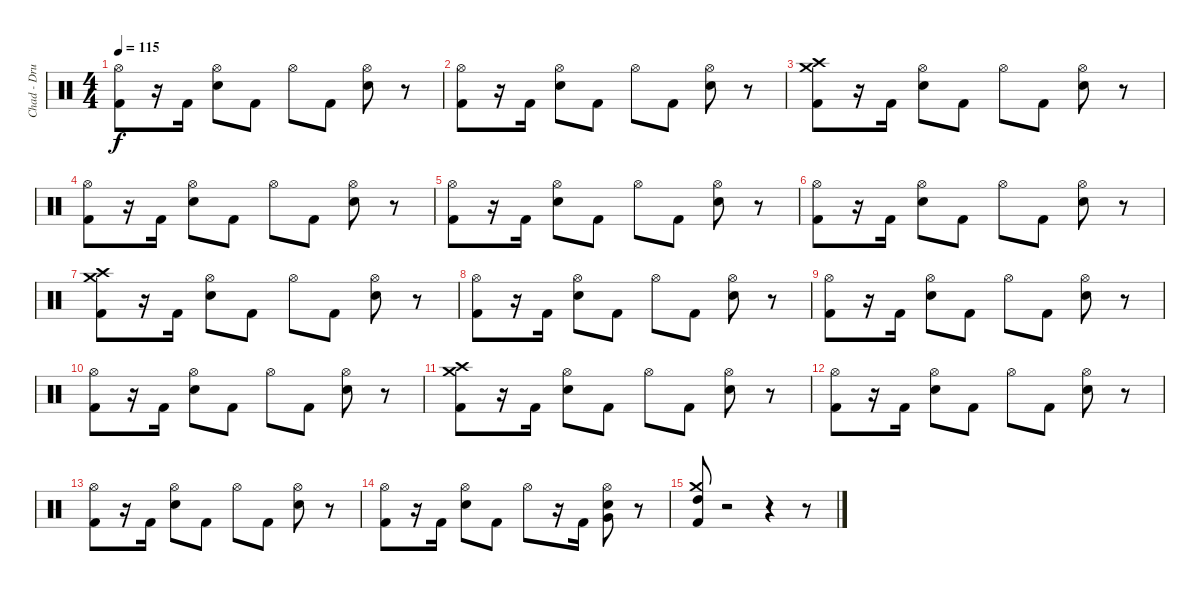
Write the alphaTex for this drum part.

\track ("Chad - Drums" "Chad - Dru") {instrument percussion}
\staff {score}
\articulation defaults
\ts (4 4)
\tempo 115
\clef neutral
\ks c
("Hi-Hat (open)" "Kick (hit) 2").8{dy f} r.16 "Kick (hit) 2".16 ("Hi-Hat (open)" "Electric Snare (hit)").8 "Kick (hit) 2".8 "Hi-Hat (open)".8 "Kick (hit) 2".8 ("Hi-Hat (open)" "Electric Snare (hit)").8 r.8 |
("Hi-Hat (open)" "Kick (hit) 2").8 r.16 "Kick (hit) 2".16 ("Hi-Hat (open)" "Electric Snare (hit)").8 "Kick (hit) 2".8 "Hi-Hat (open)".8 "Kick (hit) 2".8 ("Hi-Hat (open)" "Electric Snare (hit)").8 r.8 |
("Kick (hit) 2" "Crash medium (hit)" "Crash high (hit)").8 r.16 "Kick (hit) 2".16 ("Electric Snare (hit)" "Hi-Hat (open)").8 "Kick (hit) 2".8 "Hi-Hat (open)".8 "Kick (hit) 2".8 ("Electric Snare (hit)" "Hi-Hat (open)").8 r.8 |
("Kick (hit) 2" "Hi-Hat (open)").8 r.16 "Kick (hit) 2".16 ("Electric Snare (hit)" "Hi-Hat (open)").8 "Kick (hit) 2".8 "Hi-Hat (open)".8 "Kick (hit) 2".8 ("Electric Snare (hit)" "Hi-Hat (open)").8 r.8 |
("Hi-Hat (open)" "Kick (hit) 2").8 r.16 "Kick (hit) 2".16 ("Hi-Hat (open)" "Electric Snare (hit)").8 "Kick (hit) 2".8 "Hi-Hat (open)".8 "Kick (hit) 2".8 ("Hi-Hat (open)" "Electric Snare (hit)").8 r.8 |
("Hi-Hat (open)" "Kick (hit) 2").8 r.16 "Kick (hit) 2".16 ("Hi-Hat (open)" "Electric Snare (hit)").8 "Kick (hit) 2".8 "Hi-Hat (open)".8 "Kick (hit) 2".8 ("Hi-Hat (open)" "Electric Snare (hit)").8 r.8 |
("Kick (hit) 2" "Crash medium (hit)" "Crash high (hit)").8 r.16 "Kick (hit) 2".16 ("Electric Snare (hit)" "Hi-Hat (open)").8 "Kick (hit) 2".8 "Hi-Hat (open)".8 "Kick (hit) 2".8 ("Electric Snare (hit)" "Hi-Hat (open)").8 r.8 |
("Kick (hit) 2" "Hi-Hat (open)").8 r.16 "Kick (hit) 2".16 ("Electric Snare (hit)" "Hi-Hat (open)").8 "Kick (hit) 2".8 "Hi-Hat (open)".8 "Kick (hit) 2".8 ("Electric Snare (hit)" "Hi-Hat (open)").8 r.8 |
("Hi-Hat (open)" "Kick (hit) 2").8 r.16 "Kick (hit) 2".16 ("Hi-Hat (open)" "Electric Snare (hit)").8 "Kick (hit) 2".8 "Hi-Hat (open)".8 "Kick (hit) 2".8 ("Hi-Hat (open)" "Electric Snare (hit)").8 r.8 |
("Hi-Hat (open)" "Kick (hit) 2").8 r.16 "Kick (hit) 2".16 ("Hi-Hat (open)" "Electric Snare (hit)").8 "Kick (hit) 2".8 "Hi-Hat (open)".8 "Kick (hit) 2".8 ("Hi-Hat (open)" "Electric Snare (hit)").8 r.8 |
("Kick (hit) 2" "Crash medium (hit)" "Crash high (hit)").8 r.16 "Kick (hit) 2".16 ("Electric Snare (hit)" "Hi-Hat (open)").8 "Kick (hit) 2".8 "Hi-Hat (open)".8 "Kick (hit) 2".8 ("Electric Snare (hit)" "Hi-Hat (open)").8 r.8 |
("Kick (hit) 2" "Hi-Hat (open)").8 r.16 "Kick (hit) 2".16 ("Electric Snare (hit)" "Hi-Hat (open)").8 "Kick (hit) 2".8 "Hi-Hat (open)".8 "Kick (hit) 2".8 ("Electric Snare (hit)" "Hi-Hat (open)").8 r.8 |
("Hi-Hat (open)" "Kick (hit) 2").8 r.16 "Kick (hit) 2".16 ("Hi-Hat (open)" "Electric Snare (hit)").8 "Kick (hit) 2".8 "Hi-Hat (open)".8 "Kick (hit) 2".8 ("Hi-Hat (open)" "Electric Snare (hit)").8 r.8 |
("Hi-Hat (open)" "Kick (hit) 2").8 r.16 "Kick (hit) 2".16 ("Hi-Hat (open)" "Electric Snare (hit)").8 "Kick (hit) 2".8 "Hi-Hat (open)".8 r.16 "Kick (hit) 2".16 ("Very Low Tom (hit)" "Hi-Hat (open)" "Electric Snare (hit)").8 r.8 |
("Crash medium (hit)" "High Tom (hit)" "Kick (hit) 2").8 r.2 r.4 r.8
